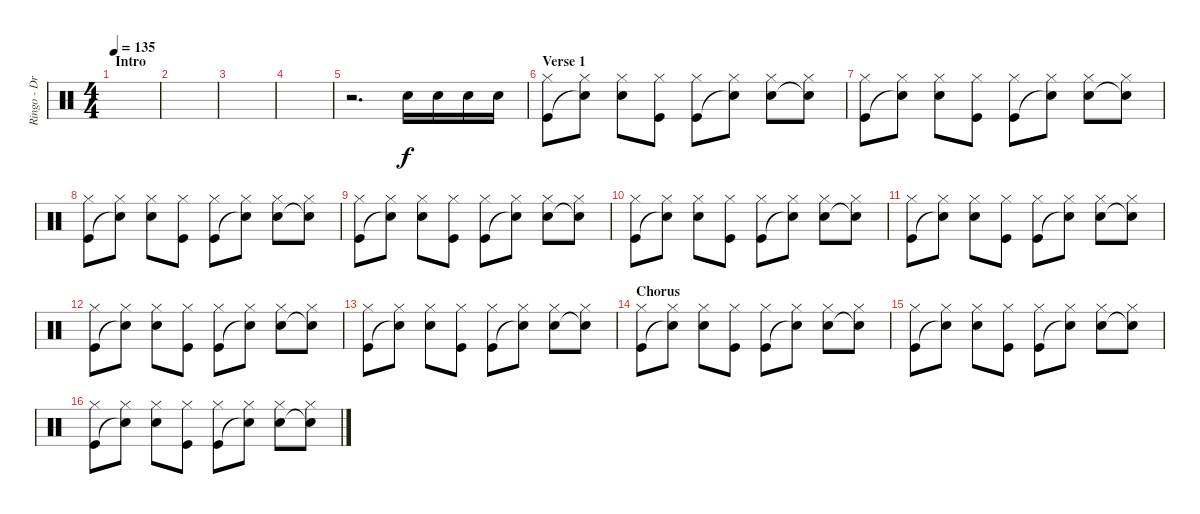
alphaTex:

\track ("Ringo - Drums" "Ringo - Dr") {instrument percussion}
\staff {score}
\articulation defaults
\ts (4 4)
\section ("" "Intro")
\tempo 135
\clef neutral
\ks c
|
|
|
|
r.2{d} "Snare (hit) 2".16 "Snare (hit) 2".16 "Snare (hit) 2".16 "Snare (hit) 2".16 |
\section ("" "Verse 1")
("Kick (hit)" "Hi-Hat (closed)").8 ("Snare (hit)"{t} "Hi-Hat (closed)").8 ("Snare (hit) 2" "Hi-Hat (closed)").8 ("Kick (hit)" "Hi-Hat (closed)").8 ("Kick (hit)" "Hi-Hat (closed)").8 ("Snare (hit)"{t} "Hi-Hat (closed)").8 ("Snare (hit) 2" "Hi-Hat (closed)").8 ("Snare (hit)"{t} "Hi-Hat (closed)").8 |
("Kick (hit)" "Hi-Hat (closed)").8 ("Snare (hit)"{t} "Hi-Hat (closed)").8 ("Snare (hit) 2" "Hi-Hat (closed)").8 ("Kick (hit)" "Hi-Hat (closed)").8 ("Kick (hit)" "Hi-Hat (closed)").8 ("Snare (hit)"{t} "Hi-Hat (closed)").8 ("Snare (hit) 2" "Hi-Hat (closed)").8 ("Snare (hit)"{t} "Hi-Hat (closed)").8 |
("Kick (hit)" "Hi-Hat (closed)").8 ("Snare (hit)"{t} "Hi-Hat (closed)").8 ("Snare (hit) 2" "Hi-Hat (closed)").8 ("Kick (hit)" "Hi-Hat (closed)").8 ("Kick (hit)" "Hi-Hat (closed)").8 ("Snare (hit)"{t} "Hi-Hat (closed)").8 ("Snare (hit) 2" "Hi-Hat (closed)").8 ("Snare (hit)"{t} "Hi-Hat (closed)").8 |
("Kick (hit)" "Hi-Hat (closed)").8 ("Snare (hit)"{t} "Hi-Hat (closed)").8 ("Snare (hit) 2" "Hi-Hat (closed)").8 ("Kick (hit)" "Hi-Hat (closed)").8 ("Kick (hit)" "Hi-Hat (closed)").8 ("Snare (hit)"{t} "Hi-Hat (closed)").8 ("Snare (hit) 2" "Hi-Hat (closed)").8 ("Snare (hit)"{t} "Hi-Hat (closed)").8 |
("Kick (hit)" "Hi-Hat (closed)").8 ("Snare (hit)"{t} "Hi-Hat (closed)").8 ("Snare (hit) 2" "Hi-Hat (closed)").8 ("Kick (hit)" "Hi-Hat (closed)").8 ("Kick (hit)" "Hi-Hat (closed)").8 ("Snare (hit)"{t} "Hi-Hat (closed)").8 ("Snare (hit) 2" "Hi-Hat (closed)").8 ("Snare (hit)"{t} "Hi-Hat (closed)").8 |
("Kick (hit)" "Hi-Hat (closed)").8 ("Snare (hit)"{t} "Hi-Hat (closed)").8 ("Snare (hit) 2" "Hi-Hat (closed)").8 ("Kick (hit)" "Hi-Hat (closed)").8 ("Kick (hit)" "Hi-Hat (closed)").8 ("Snare (hit)"{t} "Hi-Hat (closed)").8 ("Snare (hit) 2" "Hi-Hat (closed)").8 ("Snare (hit)"{t} "Hi-Hat (closed)").8 |
("Kick (hit)" "Hi-Hat (closed)").8 ("Snare (hit)"{t} "Hi-Hat (closed)").8 ("Snare (hit) 2" "Hi-Hat (closed)").8 ("Kick (hit)" "Hi-Hat (closed)").8 ("Kick (hit)" "Hi-Hat (closed)").8 ("Snare (hit)"{t} "Hi-Hat (closed)").8 ("Snare (hit) 2" "Hi-Hat (closed)").8 ("Snare (hit)"{t} "Hi-Hat (closed)").8 |
("Kick (hit)" "Hi-Hat (closed)").8 ("Snare (hit)"{t} "Hi-Hat (closed)").8 ("Snare (hit) 2" "Hi-Hat (closed)").8 ("Kick (hit)" "Hi-Hat (closed)").8 ("Kick (hit)" "Hi-Hat (closed)").8 ("Snare (hit)"{t} "Hi-Hat (closed)").8 ("Snare (hit) 2" "Hi-Hat (closed)").8 ("Snare (hit)"{t} "Hi-Hat (closed)").8 |
\section ("" "Chorus")
("Kick (hit)" "Hi-Hat (closed)").8 ("Snare (hit)"{t} "Hi-Hat (closed)").8 ("Snare (hit) 2" "Hi-Hat (closed)").8 ("Kick (hit)" "Hi-Hat (closed)").8 ("Kick (hit)" "Hi-Hat (closed)").8 ("Snare (hit)"{t} "Hi-Hat (closed)").8 ("Snare (hit) 2" "Hi-Hat (closed)").8 ("Snare (hit)"{t} "Hi-Hat (closed)").8 |
("Kick (hit)" "Hi-Hat (closed)").8 ("Snare (hit)"{t} "Hi-Hat (closed)").8 ("Snare (hit) 2" "Hi-Hat (closed)").8 ("Kick (hit)" "Hi-Hat (closed)").8 ("Kick (hit)" "Hi-Hat (closed)").8 ("Snare (hit)"{t} "Hi-Hat (closed)").8 ("Snare (hit) 2" "Hi-Hat (closed)").8 ("Snare (hit)"{t} "Hi-Hat (closed)").8 |
("Kick (hit)" "Hi-Hat (closed)").8 ("Snare (hit)"{t} "Hi-Hat (closed)").8 ("Snare (hit) 2" "Hi-Hat (closed)").8 ("Kick (hit)" "Hi-Hat (closed)").8 ("Kick (hit)" "Hi-Hat (closed)").8 ("Snare (hit)"{t} "Hi-Hat (closed)").8 ("Snare (hit) 2" "Hi-Hat (closed)").8 ("Snare (hit)"{t} "Hi-Hat (closed)").8
